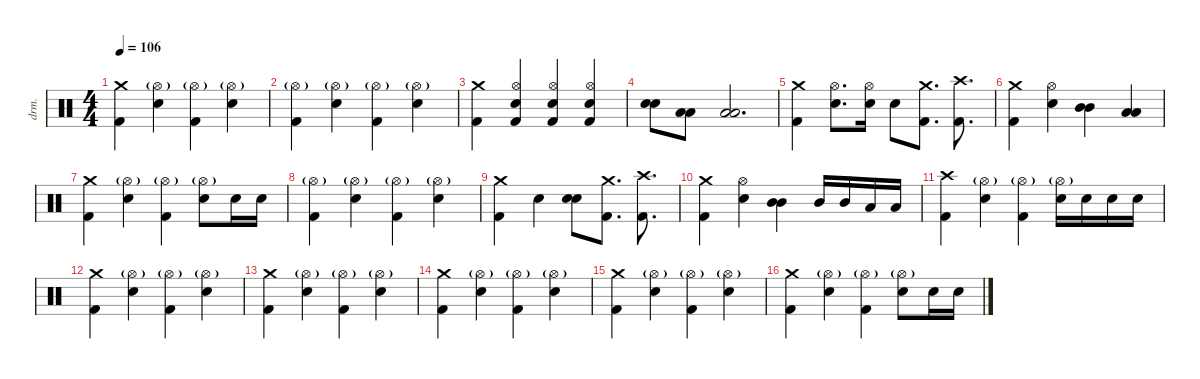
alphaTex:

\defaultSystemsLayout 4
\hideDynamics
\bracketExtendMode nobrackets
\track ("Lee Kerslake" "drm.") {solo instrument percussion}
\staff {score}
\articulation defaults
\ts (4 4)
\tempo 106
\clef neutral
\ks c
("Crash medium (hit)" "Kick (hit) 2").4{dy f} ("Hi-Hat (open)"{g} "Snare (hit) 2").4 ("Hi-Hat (open)"{g} "Kick (hit) 2").4 ("Hi-Hat (open)"{g} "Snare (hit) 2").4 |
("Hi-Hat (open)"{g} "Kick (hit) 2").4 ("Hi-Hat (open)"{g} "Snare (hit) 2").4 ("Hi-Hat (open)"{g} "Kick (hit) 2").4 ("Hi-Hat (open)"{g} "Snare (hit) 2").4 |
("Crash medium (hit)" "Kick (hit) 2").4 ("Hi-Hat (open)" "Snare (hit) 2" "Kick (hit) 2").4 ("Hi-Hat (open)" "Snare (hit) 2" "Kick (hit) 2").4 ("Hi-Hat (open)" "Snare (hit) 2" "Kick (hit) 2").4 |
("Snare (hit) 2" "Snare (hit) 2").8 ("Low Tom (hit)" "Low Tom (hit)").8 ("Low Tom (hit)" "Low Tom (hit)").2{d} |
("Crash medium (hit)" "Kick (hit) 2").4 ("Hi-Hat (open)" "Snare (hit) 2").8{d} ("Hi-Hat (open)" "Snare (hit) 2").16 "Snare (hit) 2".8 ("Crash medium (hit)" "Kick (hit) 2").8{d} ("Crash high (hit)" "Kick (hit) 2").8{d} |
("Crash medium (hit)" "Kick (hit) 2").4 ("Hi-Hat (open)" "Snare (hit) 2").4 ("Mid Tom (hit)" "Mid Tom (hit)").4 ("Low Tom (hit)" "Low Tom (hit)").4 |
("Crash medium (hit)" "Kick (hit) 2").4 ("Hi-Hat (open)"{g} "Snare (hit) 2").4 ("Hi-Hat (open)"{g} "Kick (hit) 2").4 ("Hi-Hat (open)"{g} "Snare (hit) 2").8 "Snare (hit) 2".16 "Snare (hit) 2".16 |
("Hi-Hat (open)"{g} "Kick (hit) 2").4 ("Hi-Hat (open)"{g} "Snare (hit) 2").4 ("Hi-Hat (open)"{g} "Kick (hit) 2").4 ("Hi-Hat (open)"{g} "Snare (hit) 2").4 |
("Crash medium (hit)" "Kick (hit) 2").4 "Snare (hit) 2".4 ("Snare (hit) 2" "Snare (hit) 2").8 ("Crash medium (hit)" "Kick (hit) 2").8{d} ("Crash high (hit)" "Kick (hit) 2").8{d} |
("Crash medium (hit)" "Kick (hit) 2").4 ("Hi-Hat (open)" "Snare (hit) 2").4 ("Mid Tom (hit)" "Mid Tom (hit)").4 "Mid Tom (hit)".16 "Mid Tom (hit)".16 "Low Tom (hit)".16 "Low Tom (hit)".16 |
("Crash high (hit)" "Kick (hit) 2").4 ("Hi-Hat (open)"{g} "Snare (hit) 2").4 ("Hi-Hat (open)"{g} "Kick (hit) 2").4 ("Hi-Hat (open)"{g} "Snare (hit) 2").16 "Snare (hit) 2".16 "Snare (hit) 2".16 "Snare (hit) 2".16 |
("Crash medium (hit)" "Kick (hit) 2").4 ("Hi-Hat (open)"{g} "Snare (hit) 2").4 ("Hi-Hat (open)"{g} "Kick (hit) 2").4 ("Hi-Hat (open)"{g} "Snare (hit) 2").4 |
("Crash medium (hit)" "Kick (hit) 2").4 ("Hi-Hat (open)"{g} "Snare (hit) 2").4 ("Hi-Hat (open)"{g} "Kick (hit) 2").4 ("Hi-Hat (open)"{g} "Snare (hit) 2").4 |
("Crash medium (hit)" "Kick (hit) 2").4 ("Hi-Hat (open)"{g} "Snare (hit) 2").4 ("Hi-Hat (open)"{g} "Kick (hit) 2").4 ("Hi-Hat (open)"{g} "Snare (hit) 2").4 |
("Crash medium (hit)" "Kick (hit) 2").4 ("Hi-Hat (open)"{g} "Snare (hit) 2").4 ("Hi-Hat (open)"{g} "Kick (hit) 2").4 ("Hi-Hat (open)"{g} "Snare (hit) 2").4 |
("Crash medium (hit)" "Kick (hit) 2").4 ("Hi-Hat (open)"{g} "Snare (hit) 2").4 ("Hi-Hat (open)"{g} "Kick (hit) 2").4 ("Hi-Hat (open)"{g} "Snare (hit) 2").8 "Snare (hit) 2".16 "Snare (hit) 2".16
